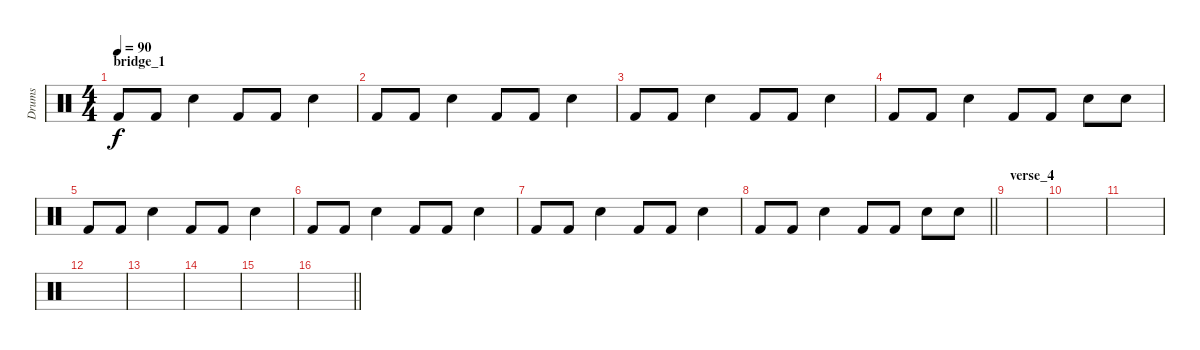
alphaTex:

\track ("Drums" "Drums") {instrument percussion}
\staff {score}
\articulation defaults
\ts (4 4)
\section ("" "bridge_1")
\tempo 90
\clef neutral
\ks c "Kick (hit) 2".8{dy f} "Kick (hit) 2".8 "Electric Snare (hit)".4 "Kick (hit) 2".8 "Kick (hit) 2".8 "Electric Snare (hit)".4
|
"Kick (hit) 2".8 "Kick (hit) 2".8 "Electric Snare (hit)".4 "Kick (hit) 2".8 "Kick (hit) 2".8 "Electric Snare (hit)".4 |
"Kick (hit) 2".8 "Kick (hit) 2".8 "Electric Snare (hit)".4 "Kick (hit) 2".8 "Kick (hit) 2".8 "Electric Snare (hit)".4 |
"Kick (hit) 2".8 "Kick (hit) 2".8 "Electric Snare (hit)".4 "Kick (hit) 2".8 "Kick (hit) 2".8 "Electric Snare (hit)".8 "Snare (hit) 2".8 |
"Kick (hit) 2".8 "Kick (hit) 2".8 "Electric Snare (hit)".4 "Kick (hit) 2".8 "Kick (hit) 2".8 "Electric Snare (hit)".4 |
"Kick (hit) 2".8 "Kick (hit) 2".8 "Electric Snare (hit)".4 "Kick (hit) 2".8 "Kick (hit) 2".8 "Electric Snare (hit)".4 |
"Kick (hit) 2".8 "Kick (hit) 2".8 "Electric Snare (hit)".4 "Kick (hit) 2".8 "Kick (hit) 2".8 "Electric Snare (hit)".4 |
\barLineRight lightlight "Kick (hit) 2".8 "Kick (hit) 2".8 "Electric Snare (hit)".4 "Kick (hit) 2".8 "Kick (hit) 2".8 "Electric Snare (hit)".8 "Snare (hit) 2".8
|
\section ("" "verse_4")
|
|
|
|
|
|
|
\barLineRight lightlight
